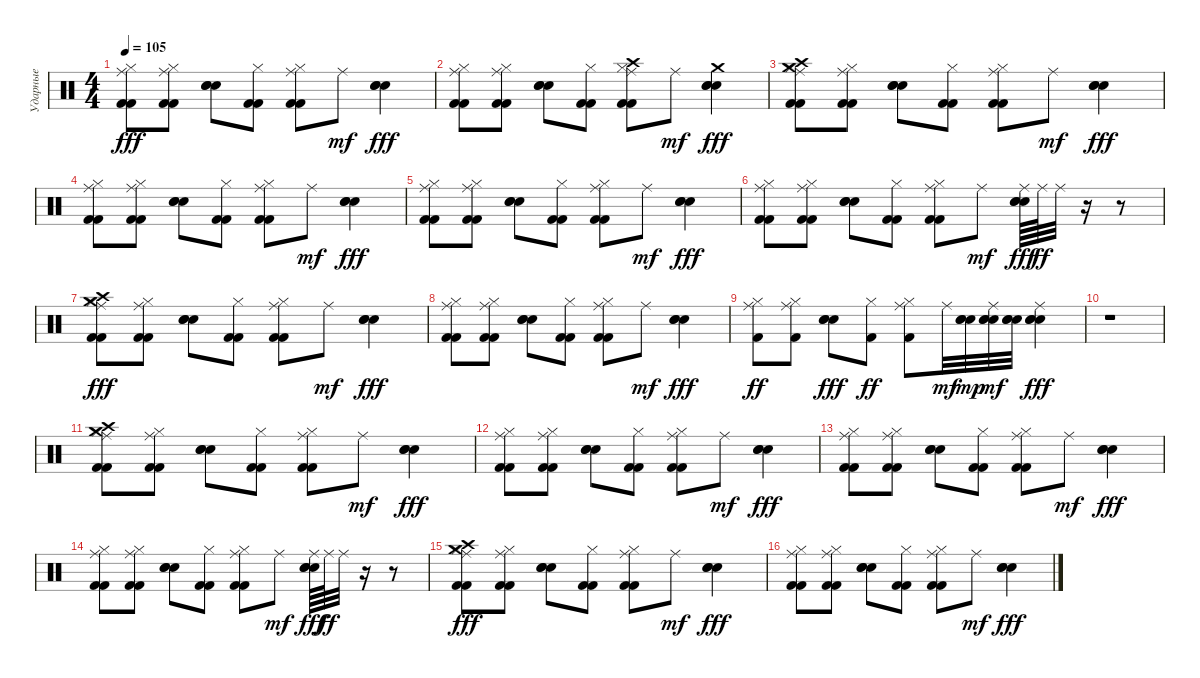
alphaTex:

\track ("Ударные" "Ударные") {instrument percussion}
\staff {score}
\articulation defaults
\ts (4 4)
\tempo 105
\clef neutral
\ks c
("Ride (middle)" "Hi-Hat (closed)" "Kick (hit) 2" "Kick (hit) 2").8{dy fff} ("Ride (middle)" "Hi-Hat (closed)" "Kick (hit) 2" "Kick (hit) 2").8 ("Snare (hit) 2" "Electric Snare (hit)" "Hand Clap (hit)").8 ("Hi-Hat (closed)" "Kick (hit) 2" "Kick (hit) 2").8 ("Ride (middle)" "Hi-Hat (closed)" "Kick (hit) 2" "Kick (hit) 2").8 "Ride (middle)".8{dy mf} ("Snare (hit) 2" "Electric Snare (hit)" "Hand Clap (hit)").4{dy fff} |
("Ride (middle)" "Hi-Hat (closed)" "Kick (hit) 2" "Kick (hit) 2").8 ("Ride (middle)" "Hi-Hat (closed)" "Kick (hit) 2" "Kick (hit) 2").8 ("Snare (hit) 2" "Electric Snare (hit)" "Hand Clap (hit)").8 ("Hi-Hat (closed)" "Kick (hit) 2" "Kick (hit) 2").8 ("Ride (middle)" "Crash high (hit)" "Hi-Hat (closed)" "Kick (hit) 2" "Kick (hit) 2").8 "Ride (middle)".8{dy mf} ("Crash medium (hit)" "Snare (hit) 2" "Electric Snare (hit)" "Hand Clap (hit)").4{dy fff} |
("Ride (middle)" "Crash high (hit)" "Hi-Hat (closed)" "Kick (hit) 2" "Kick (hit) 2" "Crash medium (hit)").8 ("Ride (middle)" "Hi-Hat (closed)" "Kick (hit) 2" "Kick (hit) 2").8 ("Snare (hit) 2" "Electric Snare (hit)" "Hand Clap (hit)").8 ("Hi-Hat (closed)" "Kick (hit) 2" "Kick (hit) 2").8 ("Ride (middle)" "Hi-Hat (closed)" "Kick (hit) 2" "Kick (hit) 2").8 "Ride (middle)".8{dy mf} ("Snare (hit) 2" "Electric Snare (hit)" "Hand Clap (hit)").4{dy fff} |
("Ride (middle)" "Hi-Hat (closed)" "Kick (hit) 2" "Kick (hit) 2").8 ("Ride (middle)" "Hi-Hat (closed)" "Kick (hit) 2" "Kick (hit) 2").8 ("Snare (hit) 2" "Electric Snare (hit)" "Hand Clap (hit)").8 ("Hi-Hat (closed)" "Kick (hit) 2" "Kick (hit) 2").8 ("Ride (middle)" "Hi-Hat (closed)" "Kick (hit) 2" "Kick (hit) 2").8 "Ride (middle)".8{dy mf} ("Snare (hit) 2" "Electric Snare (hit)" "Hand Clap (hit)").4{dy fff} |
("Ride (middle)" "Hi-Hat (closed)" "Kick (hit) 2" "Kick (hit) 2").8 ("Ride (middle)" "Hi-Hat (closed)" "Kick (hit) 2" "Kick (hit) 2").8 ("Snare (hit) 2" "Electric Snare (hit)" "Hand Clap (hit)").8 ("Hi-Hat (closed)" "Kick (hit) 2" "Kick (hit) 2").8 ("Ride (middle)" "Hi-Hat (closed)" "Kick (hit) 2" "Kick (hit) 2").8 "Ride (middle)".8{dy mf} ("Snare (hit) 2" "Electric Snare (hit)" "Hand Clap (hit)").4{dy fff} |
("Ride (middle)" "Hi-Hat (closed)" "Kick (hit) 2" "Kick (hit) 2").8 ("Ride (middle)" "Hi-Hat (closed)" "Kick (hit) 2" "Kick (hit) 2").8 ("Snare (hit) 2" "Electric Snare (hit)" "Hand Clap (hit)").8 ("Hi-Hat (closed)" "Kick (hit) 2" "Kick (hit) 2").8 ("Ride (middle)" "Hi-Hat (closed)" "Kick (hit) 2" "Kick (hit) 2").8 "Ride (middle)".8{dy mf} ("Ride (middle)" "Snare (hit) 2" "Electric Snare (hit)" "Hand Clap (hit)").64{dy fff} "Ride (middle)".64{dy ff} "Ride (middle)".32 r.16 r.8 |
("Ride (middle)" "Crash medium (hit)" "Hi-Hat (closed)" "Kick (hit) 2" "Kick (hit) 2" "Crash high (hit)").8{dy fff} ("Ride (middle)" "Hi-Hat (closed)" "Kick (hit) 2" "Kick (hit) 2").8 ("Snare (hit) 2" "Electric Snare (hit)" "Hand Clap (hit)").8 ("Hi-Hat (closed)" "Kick (hit) 2" "Kick (hit) 2").8 ("Ride (middle)" "Hi-Hat (closed)" "Kick (hit) 2" "Kick (hit) 2").8 "Ride (middle)".8{dy mf} ("Snare (hit) 2" "Electric Snare (hit)" "Hand Clap (hit)").4{dy fff} |
("Ride (middle)" "Hi-Hat (closed)" "Kick (hit) 2" "Kick (hit) 2").8 ("Ride (middle)" "Hi-Hat (closed)" "Kick (hit) 2" "Kick (hit) 2").8 ("Snare (hit) 2" "Electric Snare (hit)" "Hand Clap (hit)").8 ("Hi-Hat (closed)" "Kick (hit) 2" "Kick (hit) 2").8 ("Ride (middle)" "Hi-Hat (closed)" "Kick (hit) 2" "Kick (hit) 2").8 "Ride (middle)".8{dy mf} ("Snare (hit) 2" "Electric Snare (hit)" "Hand Clap (hit)").4{dy fff} |
("Ride (middle)" "Hi-Hat (closed)" "Kick (hit) 2").8{dy ff} ("Ride (middle)" "Hi-Hat (closed)" "Kick (hit) 2").8 ("Snare (hit) 2" "Electric Snare (hit)" "Hand Clap (hit)").8{dy fff} ("Hi-Hat (closed)" "Kick (hit) 2").8{dy ff} ("Ride (middle)" "Hi-Hat (closed)" "Kick (hit) 2").8 "Ride (middle)".32{dy mf} ("Hand Clap (hit)" "Electric Snare (hit)" "Snare (hit) 2").32{dy mp} ("Ride (middle)" "Hand Clap (hit)" "Electric Snare (hit)" "Snare (hit) 2").32{dy mf} ("Hand Clap (hit)" "Electric Snare (hit)" "Snare (hit) 2").32 ("Ride (middle)" "Hand Clap (hit)" "Electric Snare (hit)" "Snare (hit) 2").4{dy fff} |
r.1 |
("Ride (middle)" "Crash high (hit)" "Hi-Hat (closed)" "Kick (hit) 2" "Kick (hit) 2" "Crash medium (hit)").8 ("Ride (middle)" "Hi-Hat (closed)" "Kick (hit) 2" "Kick (hit) 2").8 ("Snare (hit) 2" "Electric Snare (hit)" "Hand Clap (hit)").8 ("Hi-Hat (closed)" "Kick (hit) 2" "Kick (hit) 2").8 ("Ride (middle)" "Hi-Hat (closed)" "Kick (hit) 2" "Kick (hit) 2").8 "Ride (middle)".8{dy mf} ("Snare (hit) 2" "Electric Snare (hit)" "Hand Clap (hit)").4{dy fff} |
("Ride (middle)" "Hi-Hat (closed)" "Kick (hit) 2" "Kick (hit) 2").8 ("Ride (middle)" "Hi-Hat (closed)" "Kick (hit) 2" "Kick (hit) 2").8 ("Snare (hit) 2" "Electric Snare (hit)" "Hand Clap (hit)").8 ("Hi-Hat (closed)" "Kick (hit) 2" "Kick (hit) 2").8 ("Ride (middle)" "Hi-Hat (closed)" "Kick (hit) 2" "Kick (hit) 2").8 "Ride (middle)".8{dy mf} ("Snare (hit) 2" "Electric Snare (hit)" "Hand Clap (hit)").4{dy fff} |
("Ride (middle)" "Hi-Hat (closed)" "Kick (hit) 2" "Kick (hit) 2").8 ("Ride (middle)" "Hi-Hat (closed)" "Kick (hit) 2" "Kick (hit) 2").8 ("Snare (hit) 2" "Electric Snare (hit)" "Hand Clap (hit)").8 ("Hi-Hat (closed)" "Kick (hit) 2" "Kick (hit) 2").8 ("Ride (middle)" "Hi-Hat (closed)" "Kick (hit) 2" "Kick (hit) 2").8 "Ride (middle)".8{dy mf} ("Snare (hit) 2" "Electric Snare (hit)" "Hand Clap (hit)").4{dy fff} |
("Ride (middle)" "Hi-Hat (closed)" "Kick (hit) 2" "Kick (hit) 2").8 ("Ride (middle)" "Hi-Hat (closed)" "Kick (hit) 2" "Kick (hit) 2").8 ("Snare (hit) 2" "Electric Snare (hit)" "Hand Clap (hit)").8 ("Hi-Hat (closed)" "Kick (hit) 2" "Kick (hit) 2").8 ("Ride (middle)" "Hi-Hat (closed)" "Kick (hit) 2" "Kick (hit) 2").8 "Ride (middle)".8{dy mf} ("Ride (middle)" "Snare (hit) 2" "Electric Snare (hit)" "Hand Clap (hit)").64{dy fff} "Ride (middle)".64{dy ff} "Ride (middle)".32 r.16 r.8 |
("Ride (middle)" "Crash high (hit)" "Hi-Hat (closed)" "Kick (hit) 2" "Kick (hit) 2" "Crash medium (hit)").8{dy fff} ("Ride (middle)" "Hi-Hat (closed)" "Kick (hit) 2" "Kick (hit) 2").8 ("Snare (hit) 2" "Electric Snare (hit)" "Hand Clap (hit)").8 ("Hi-Hat (closed)" "Kick (hit) 2" "Kick (hit) 2").8 ("Ride (middle)" "Hi-Hat (closed)" "Kick (hit) 2" "Kick (hit) 2").8 "Ride (middle)".8{dy mf} ("Snare (hit) 2" "Electric Snare (hit)" "Hand Clap (hit)").4{dy fff} |
("Ride (middle)" "Hi-Hat (closed)" "Kick (hit) 2" "Kick (hit) 2").8 ("Ride (middle)" "Hi-Hat (closed)" "Kick (hit) 2" "Kick (hit) 2").8 ("Snare (hit) 2" "Electric Snare (hit)" "Hand Clap (hit)").8 ("Hi-Hat (closed)" "Kick (hit) 2" "Kick (hit) 2").8 ("Ride (middle)" "Hi-Hat (closed)" "Kick (hit) 2" "Kick (hit) 2").8 "Ride (middle)".8{dy mf} ("Snare (hit) 2" "Electric Snare (hit)" "Hand Clap (hit)").4{dy fff}
